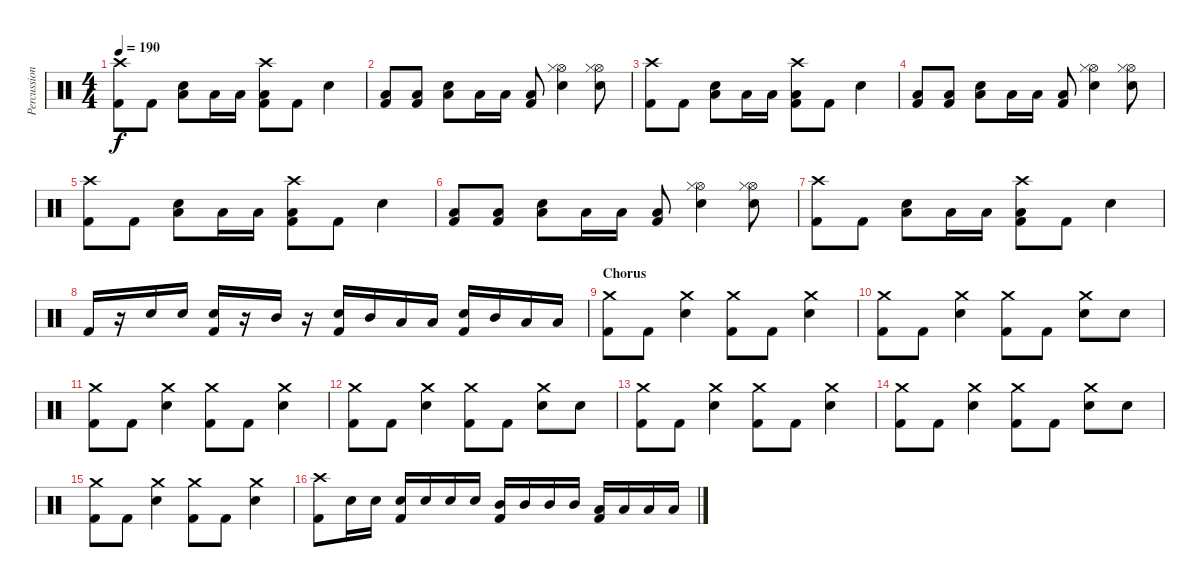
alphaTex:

\track ("Percussion" "Percussion") {instrument percussion}
\staff {score}
\articulation defaults
\ts (4 4)
\tempo 190
\clef neutral
\ks c
("Crash high (hit)" "Kick (hit) 2").8{dy f} "Kick (hit) 2".8 ("Low Tom (hit)" "Snare (hit) 2").8 "Low Tom (hit)".16 "Low Tom (hit)".16 ("Crash high (hit)" "Low Tom (hit)" "Kick (hit) 2").8 "Kick (hit) 2".8 "Snare (hit) 2".4 |
("Low Tom (hit)" "Kick (hit) 2").8 ("Low Tom (hit)" "Kick (hit) 2").8 ("Low Tom (hit)" "Snare (hit) 2").8 "Low Tom (hit)".16 "Low Tom (hit)".16 ("Low Tom (hit)" "Kick (hit) 2").8 ("Hi-Hat (open)" "Hi-Hat (closed)" "Snare (hit) 2").4 ("Hi-Hat (open)" "Hi-Hat (closed)" "Snare (hit) 2").8 |
("Crash high (hit)" "Kick (hit) 2").8 "Kick (hit) 2".8 ("Low Tom (hit)" "Snare (hit) 2").8 "Low Tom (hit)".16 "Low Tom (hit)".16 ("Crash high (hit)" "Low Tom (hit)" "Kick (hit) 2").8 "Kick (hit) 2".8 "Snare (hit) 2".4 |
("Low Tom (hit)" "Kick (hit) 2").8 ("Low Tom (hit)" "Kick (hit) 2").8 ("Low Tom (hit)" "Snare (hit) 2").8 "Low Tom (hit)".16 "Low Tom (hit)".16 ("Low Tom (hit)" "Kick (hit) 2").8 ("Hi-Hat (open)" "Hi-Hat (closed)" "Snare (hit) 2").4 ("Hi-Hat (open)" "Hi-Hat (closed)" "Snare (hit) 2").8 |
("Crash high (hit)" "Kick (hit) 2").8 "Kick (hit) 2".8 ("Low Tom (hit)" "Snare (hit) 2").8 "Low Tom (hit)".16 "Low Tom (hit)".16 ("Crash high (hit)" "Low Tom (hit)" "Kick (hit) 2").8 "Kick (hit) 2".8 "Snare (hit) 2".4 |
("Low Tom (hit)" "Kick (hit) 2").8 ("Low Tom (hit)" "Kick (hit) 2").8 ("Low Tom (hit)" "Snare (hit) 2").8 "Low Tom (hit)".16 "Low Tom (hit)".16 ("Low Tom (hit)" "Kick (hit) 2").8 ("Hi-Hat (open)" "Hi-Hat (closed)" "Snare (hit) 2").4 ("Hi-Hat (open)" "Hi-Hat (closed)" "Snare (hit) 2").8 |
("Crash high (hit)" "Kick (hit) 2").8 "Kick (hit) 2".8 ("Low Tom (hit)" "Snare (hit) 2").8 "Low Tom (hit)".16 "Low Tom (hit)".16 ("Crash high (hit)" "Low Tom (hit)" "Kick (hit) 2").8 "Kick (hit) 2".8 "Snare (hit) 2".4 |
"Kick (hit) 2".16 r.16 "Snare (hit) 2".16 "Snare (hit) 2".16 ("Snare (hit) 2" "Kick (hit) 2").16 r.16 "Mid Tom (hit)".16 r.16 ("Snare (hit) 2" "Kick (hit) 2").16 "Mid Tom (hit)".16 "Low Tom (hit)".16 "Low Tom (hit)".16 ("Snare (hit) 2" "Kick (hit) 2").16 "Mid Tom (hit)".16 "Low Tom (hit)".16 "Low Tom (hit)".16 |
\section ("" "Chorus")
("Crash medium (hit)" "Kick (hit) 2").8 "Kick (hit) 2".8 ("Crash medium (hit)" "Snare (hit) 2").4 ("Crash medium (hit)" "Kick (hit) 2").8 "Kick (hit) 2".8 ("Crash medium (hit)" "Snare (hit) 2").4 |
("Crash medium (hit)" "Kick (hit) 2").8 "Kick (hit) 2".8 ("Crash medium (hit)" "Snare (hit) 2").4 ("Crash medium (hit)" "Kick (hit) 2").8 "Kick (hit) 2".8 ("Crash medium (hit)" "Snare (hit) 2").8 "Snare (hit) 2".8 |
("Crash medium (hit)" "Kick (hit) 2").8 "Kick (hit) 2".8 ("Crash medium (hit)" "Snare (hit) 2").4 ("Crash medium (hit)" "Kick (hit) 2").8 "Kick (hit) 2".8 ("Crash medium (hit)" "Snare (hit) 2").4 |
("Crash medium (hit)" "Kick (hit) 2").8 "Kick (hit) 2".8 ("Crash medium (hit)" "Snare (hit) 2").4 ("Crash medium (hit)" "Kick (hit) 2").8 "Kick (hit) 2".8 ("Crash medium (hit)" "Snare (hit) 2").8 "Snare (hit) 2".8 |
("Crash medium (hit)" "Kick (hit) 2").8 "Kick (hit) 2".8 ("Crash medium (hit)" "Snare (hit) 2").4 ("Crash medium (hit)" "Kick (hit) 2").8 "Kick (hit) 2".8 ("Crash medium (hit)" "Snare (hit) 2").4 |
("Crash medium (hit)" "Kick (hit) 2").8 "Kick (hit) 2".8 ("Crash medium (hit)" "Snare (hit) 2").4 ("Crash medium (hit)" "Kick (hit) 2").8 "Kick (hit) 2".8 ("Crash medium (hit)" "Snare (hit) 2").8 "Snare (hit) 2".8 |
("Crash medium (hit)" "Kick (hit) 2").8 "Kick (hit) 2".8 ("Crash medium (hit)" "Snare (hit) 2").4 ("Crash medium (hit)" "Kick (hit) 2").8 "Kick (hit) 2".8 ("Crash medium (hit)" "Snare (hit) 2").4 |
("Crash high (hit)" "Kick (hit) 2").8 "Snare (hit) 2".16 "Snare (hit) 2".16 ("Snare (hit) 2" "Kick (hit) 2").16 "Snare (hit) 2".16 "Snare (hit) 2".16 "Snare (hit) 2".16 ("Mid Tom (hit)" "Kick (hit) 2").16 "Mid Tom (hit)".16 "Mid Tom (hit)".16 "Mid Tom (hit)".16 ("Low Tom (hit)" "Kick (hit) 2").16 "Low Tom (hit)".16 "Low Tom (hit)".16 "Low Tom (hit)".16
